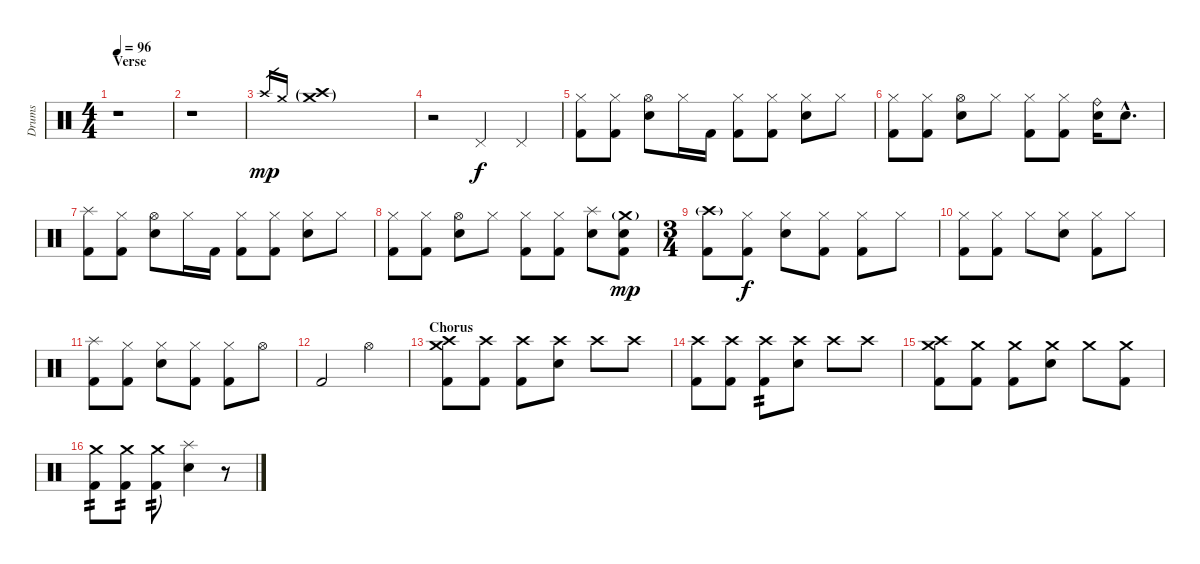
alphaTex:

\track ("Drums" "Drums") {instrument percussion}
\staff {score}
\articulation defaults
\ts (4 4)
\section ("" "Verse")
\tempo 96
\clef neutral
\ks c
r.1{dy f} |
r.1 |
"Crash high (hit)".16{gr dy mp} "Crash medium (hit)".16{gr} ("Crash high (hit)"{g} "Crash medium (hit)"{g}).1 |
r.2 "Pedal Hi-Hat (hit)".4{dy f} "Pedal Hi-Hat (hit)".4 |
("Hi-Hat (closed)" "Kick (hit) 2").8 ("Hi-Hat (closed)" "Kick (hit) 2").8 ("Hi-Hat (open)" "Snare (hit) 2").8 "Hi-Hat (closed)".16 "Kick (hit) 2".16 ("Hi-Hat (closed)" "Kick (hit) 2").8 ("Hi-Hat (closed)" "Kick (hit) 2").8 ("Hi-Hat (closed)" "Snare (hit) 2").8 "Hi-Hat (closed)".8 |
("Hi-Hat (closed)" "Kick (hit) 2").8 ("Hi-Hat (closed)" "Kick (hit) 2").8 ("Hi-Hat (open)" "Snare (hit) 2").8 "Hi-Hat (closed)".8 ("Hi-Hat (closed)" "Kick (hit) 2").8 ("Hi-Hat (closed)" "Kick (hit) 2").8 ("Ride (bell)" "Snare (hit) 2").16 "Snare (hit) 2"{hac}.8{d} |
("Splash (hit)" "Kick (hit) 2").8 ("Hi-Hat (closed)" "Kick (hit) 2").8 ("Hi-Hat (open)" "Snare (hit) 2").8 "Hi-Hat (closed)".16 "Kick (hit) 2".16 ("Hi-Hat (closed)" "Kick (hit) 2").8 ("Hi-Hat (closed)" "Kick (hit) 2").8 ("Hi-Hat (closed)" "Snare (hit) 2").8 "Hi-Hat (closed)".8 |
("Hi-Hat (closed)" "Kick (hit) 2").8 ("Hi-Hat (closed)" "Kick (hit) 2").8 ("Hi-Hat (open)" "Snare (hit) 2").8 "Hi-Hat (closed)".8 ("Hi-Hat (closed)" "Kick (hit) 2").8 ("Hi-Hat (closed)" "Kick (hit) 2").8 ("Splash (hit)" "Snare (hit) 2").8 ("Crash medium (hit)"{g} "Snare (hit) 2" "Kick (hit) 2").8{dy mp} |
\ts (3 4)
("Crash high (hit)"{g} "Kick (hit) 2").8 ("Hi-Hat (closed)" "Kick (hit) 2").8{dy f} ("Hi-Hat (closed)" "Snare (hit) 2").8 ("Hi-Hat (closed)" "Kick (hit) 2").8 ("Hi-Hat (closed)" "Kick (hit) 2").8 "Hi-Hat (closed)".8 |
("Hi-Hat (closed)" "Kick (hit) 2").8 ("Hi-Hat (closed)" "Kick (hit) 2").8 "Hi-Hat (closed)".8 ("Hi-Hat (closed)" "Snare (hit) 2").8 ("Hi-Hat (closed)" "Kick (hit) 2").8 "Hi-Hat (closed)".8 |
("Splash (hit)" "Kick (hit) 2").8 ("Hi-Hat (closed)" "Kick (hit) 2").8 ("Hi-Hat (closed)" "Snare (hit) 2").8 ("Hi-Hat (closed)" "Kick (hit) 2").8 ("Hi-Hat (closed)" "Kick (hit) 2").8 "Hi-Hat (open)".8 |
"Kick (hit) 2".2 "Hi-Hat (open)".4 |
\section ("" "Chorus")
("Crash high (hit)" "Crash medium (hit)" "Kick (hit) 2").8 ("Crash high (hit)" "Kick (hit) 2").8 ("Crash high (hit)" "Kick (hit) 2").8 ("Crash high (hit)" "Snare (hit) 2").8 "Crash high (hit)".8 "Crash high (hit)".8 |
("Crash high (hit)" "Kick (hit) 2").8 ("Crash high (hit)" "Kick (hit) 2").8 ("Crash high (hit)" "Kick (hit) 2").8{tp 2} ("Crash high (hit)" "Snare (hit) 2").8 "Crash high (hit)".8 "Crash high (hit)".8 |
("Crash medium (hit)" "Crash high (hit)" "Kick (hit) 2").8 ("Crash medium (hit)" "Kick (hit) 2").8 ("Crash medium (hit)" "Kick (hit) 2").8 ("Crash medium (hit)" "Snare (hit) 2").8 "Crash medium (hit)".8 ("Crash medium (hit)" "Kick (hit) 2").8 |
("Crash medium (hit)" "Kick (hit) 2").8{tp 2} ("Crash medium (hit)" "Kick (hit) 2").8{tp 2} ("Crash medium (hit)" "Kick (hit) 2").8{tp 2} ("Splash (hit)" "Snare (hit) 2").4 r.8
